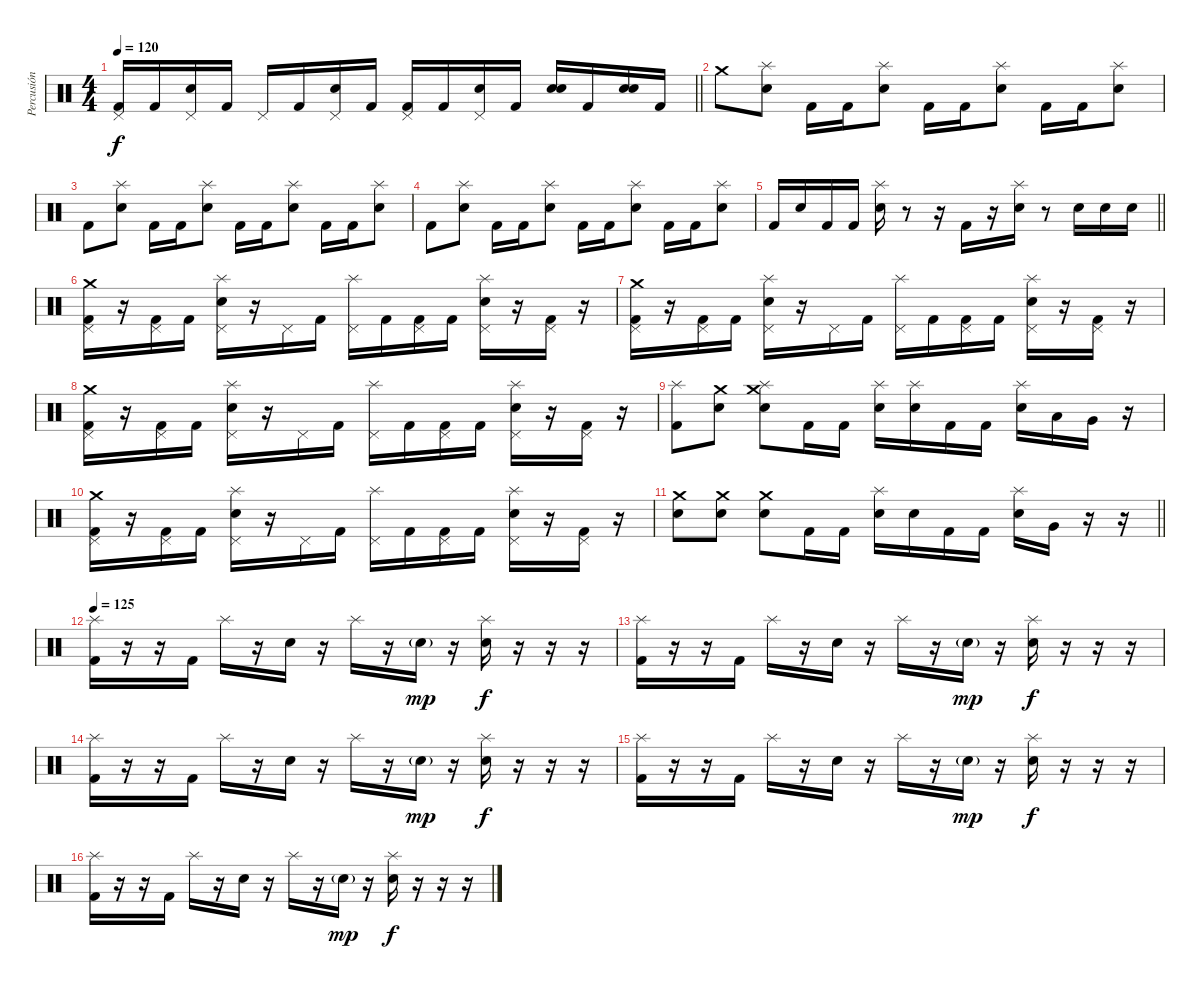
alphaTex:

\track ("Percusión" "Percusión") {instrument percussion}
\staff {score}
\articulation defaults
\ts (4 4)
\tempo 120
\clef neutral
\barLineRight lightlight
\ks c
("Pedal Hi-Hat (hit)" "Kick (hit) 2").16{dy f} "Kick (hit) 2".16 ("Pedal Hi-Hat (hit)" "Electric Snare (hit)").16 "Kick (hit) 2".16 "Pedal Hi-Hat (hit)".16 "Kick (hit) 2".16 ("Pedal Hi-Hat (hit)" "Electric Snare (hit)").16 "Kick (hit) 2".16 ("Pedal Hi-Hat (hit)" "Kick (hit) 2").16 "Kick (hit) 2".16 ("Pedal Hi-Hat (hit)" "Electric Snare (hit)").16 "Kick (hit) 2".16 ("Electric Snare (hit)" "Electric Snare (hit)").16{bu 60} "Kick (hit) 2".16 ("Electric Snare (hit)" "Electric Snare (hit)").16{bu 60} "Kick (hit) 2".16 |
"Crash medium (hit)".8 ("Splash (hit)" "Electric Snare (hit)").8 "Kick (hit) 2".16 "Kick (hit) 2".16 ("Splash (hit)" "Electric Snare (hit)").8 "Kick (hit) 2".16 "Kick (hit) 2".16 ("Splash (hit)" "Electric Snare (hit)").8 "Kick (hit) 2".16 "Kick (hit) 2".16 ("Splash (hit)" "Electric Snare (hit)").8 |
"Kick (hit) 2".8 ("Splash (hit)" "Electric Snare (hit)").8 "Kick (hit) 2".16 "Kick (hit) 2".16 ("Splash (hit)" "Electric Snare (hit)").8 "Kick (hit) 2".16 "Kick (hit) 2".16 ("Splash (hit)" "Electric Snare (hit)").8 "Kick (hit) 2".16 "Kick (hit) 2".16 ("Splash (hit)" "Electric Snare (hit)").8 |
"Kick (hit) 2".8 ("Splash (hit)" "Electric Snare (hit)").8 "Kick (hit) 2".16 "Kick (hit) 2".16 ("Splash (hit)" "Electric Snare (hit)").8 "Kick (hit) 2".16 "Kick (hit) 2".16 ("Splash (hit)" "Electric Snare (hit)").8 "Kick (hit) 2".16 "Kick (hit) 2".16 ("Splash (hit)" "Electric Snare (hit)").8 |
\barLineRight lightlight "Kick (hit) 2".16 "Electric Snare (hit)".16 "Kick (hit) 2".16 "Kick (hit) 2".16
("Splash (hit)" "Electric Snare (hit)").16 r.8 r.16 "Kick (hit) 2".16 r.16 ("Splash (hit)" "Electric Snare (hit)").16 r.8 "Electric Snare (hit)".16 "Electric Snare (hit)".16 "Electric Snare (hit)".16 |
("Pedal Hi-Hat (hit)" "Crash medium (hit)" "Kick (hit) 2").16 r.16 ("Pedal Hi-Hat (hit)" "Kick (hit) 2").16 "Kick (hit) 2".16 ("Splash (hit)" "Pedal Hi-Hat (hit)" "Electric Snare (hit)").16 r.16 "Pedal Hi-Hat (hit)".16 "Kick (hit) 2".16 ("Splash (hit)" "Pedal Hi-Hat (hit)").16 "Kick (hit) 2".16 ("Pedal Hi-Hat (hit)" "Kick (hit) 2").16 "Kick (hit) 2".16 ("Splash (hit)" "Pedal Hi-Hat (hit)" "Electric Snare (hit)").16 r.16 ("Pedal Hi-Hat (hit)" "Kick (hit) 2").16 r.16 |
("Pedal Hi-Hat (hit)" "Crash medium (hit)" "Kick (hit) 2").16 r.16 ("Pedal Hi-Hat (hit)" "Kick (hit) 2").16 "Kick (hit) 2".16 ("Splash (hit)" "Pedal Hi-Hat (hit)" "Electric Snare (hit)").16 r.16 "Pedal Hi-Hat (hit)".16 "Kick (hit) 2".16 ("Splash (hit)" "Pedal Hi-Hat (hit)").16 "Kick (hit) 2".16 ("Pedal Hi-Hat (hit)" "Kick (hit) 2").16 "Kick (hit) 2".16 ("Splash (hit)" "Pedal Hi-Hat (hit)" "Electric Snare (hit)").16 r.16 ("Pedal Hi-Hat (hit)" "Kick (hit) 2").16 r.16 |
("Pedal Hi-Hat (hit)" "Crash medium (hit)" "Kick (hit) 2").16 r.16 ("Pedal Hi-Hat (hit)" "Kick (hit) 2").16 "Kick (hit) 2".16 ("Splash (hit)" "Pedal Hi-Hat (hit)" "Electric Snare (hit)").16 r.16 "Pedal Hi-Hat (hit)".16 "Kick (hit) 2".16 ("Splash (hit)" "Pedal Hi-Hat (hit)").16 "Kick (hit) 2".16 ("Pedal Hi-Hat (hit)" "Kick (hit) 2").16 "Kick (hit) 2".16 ("Splash (hit)" "Pedal Hi-Hat (hit)" "Electric Snare (hit)").16 r.16 ("Pedal Hi-Hat (hit)" "Kick (hit) 2").16 r.16 |
("Splash (hit)" "Kick (hit) 2").8 ("Crash medium (hit)" "Electric Snare (hit)").8 ("Splash (hit)" "Crash medium (hit)" "Electric Snare (hit)").8 "Kick (hit) 2".16 "Kick (hit) 2".16 ("Splash (hit)" "Electric Snare (hit)").16 ("Splash (hit)" "Electric Snare (hit)").16 "Kick (hit) 2".16 "Kick (hit) 2".16 ("Splash (hit)" "Electric Snare (hit)").16 "Low Tom (hit)".16 "Very Low Tom (hit)".16 r.16 |
("Pedal Hi-Hat (hit)" "Crash medium (hit)" "Kick (hit) 2").16 r.16 ("Pedal Hi-Hat (hit)" "Kick (hit) 2").16 "Kick (hit) 2".16 ("Splash (hit)" "Pedal Hi-Hat (hit)" "Electric Snare (hit)").16 r.16 "Pedal Hi-Hat (hit)".16 "Kick (hit) 2".16 ("Splash (hit)" "Pedal Hi-Hat (hit)").16 "Kick (hit) 2".16 ("Pedal Hi-Hat (hit)" "Kick (hit) 2").16 "Kick (hit) 2".16 ("Splash (hit)" "Pedal Hi-Hat (hit)" "Electric Snare (hit)").16 r.16 ("Pedal Hi-Hat (hit)" "Kick (hit) 2").16 r.16 |
\barLineRight lightlight
("Crash medium (hit)" "Electric Snare (hit)").8 ("Crash medium (hit)" "Electric Snare (hit)").8 ("Crash medium (hit)" "Electric Snare (hit)").8 "Kick (hit) 2".16 "Kick (hit) 2".16 ("Splash (hit)" "Electric Snare (hit)").16 "Electric Snare (hit)".16 "Kick (hit) 2".16 "Kick (hit) 2".16 ("Splash (hit)" "Electric Snare (hit)").16 "Very Low Tom (hit)".16 r.16 r.16 |
\tempo 125
("Splash (hit)" "Kick (hit) 2").16 r.16 r.16 "Kick (hit) 2".16 "Splash (hit)".16 r.16 "Electric Snare (hit)".16 r.16 "Splash (hit)".16 r.16 "Electric Snare (hit)"{g}.16{dy mp} r.16 ("Splash (hit)" "Electric Snare (hit)").16{dy f} r.16 r.16 r.16 |
("Splash (hit)" "Kick (hit) 2").16 r.16 r.16 "Kick (hit) 2".16 "Splash (hit)".16 r.16 "Electric Snare (hit)".16 r.16 "Splash (hit)".16 r.16 "Electric Snare (hit)"{g}.16{dy mp} r.16 ("Splash (hit)" "Electric Snare (hit)").16{dy f} r.16 r.16 r.16 |
("Splash (hit)" "Kick (hit) 2").16 r.16 r.16 "Kick (hit) 2".16 "Splash (hit)".16 r.16 "Electric Snare (hit)".16 r.16 "Splash (hit)".16 r.16 "Electric Snare (hit)"{g}.16{dy mp} r.16 ("Splash (hit)" "Electric Snare (hit)").16{dy f} r.16 r.16 r.16 |
("Splash (hit)" "Kick (hit) 2").16 r.16 r.16 "Kick (hit) 2".16 "Splash (hit)".16 r.16 "Electric Snare (hit)".16 r.16 "Splash (hit)".16 r.16 "Electric Snare (hit)"{g}.16{dy mp} r.16 ("Splash (hit)" "Electric Snare (hit)").16{dy f} r.16 r.16 r.16 |
("Splash (hit)" "Kick (hit) 2").16 r.16 r.16 "Kick (hit) 2".16 "Splash (hit)".16 r.16 "Electric Snare (hit)".16 r.16 "Splash (hit)".16 r.16 "Electric Snare (hit)"{g}.16{dy mp} r.16 ("Splash (hit)" "Electric Snare (hit)").16{dy f} r.16 r.16 r.16
